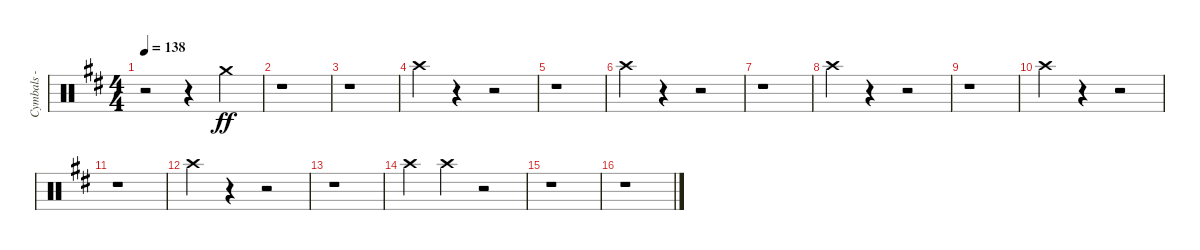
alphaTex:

\track ("Cymbals - crash" "Cymbals - ") {instrument percussion}
\staff {score}
\articulation defaults
\ts (4 4)
\tempo 138
\clef neutral
\ks d
r.2{dy ff} r.4 "Crash medium (hit)".4 |
r.1 |
r.1 |
"Crash high (hit)".4 r.4 r.2 |
r.1 |
"Crash high (hit)".4 r.4 r.2 |
r.1 |
"Crash high (hit)".4 r.4 r.2 |
r.1 |
"Crash high (hit)".4 r.4 r.2 |
r.1 |
"Crash high (hit)".4 r.4 r.2 |
r.1 |
"Crash high (hit)".4 "Crash high (hit)".4 r.2 |
r.1 |
r.1
